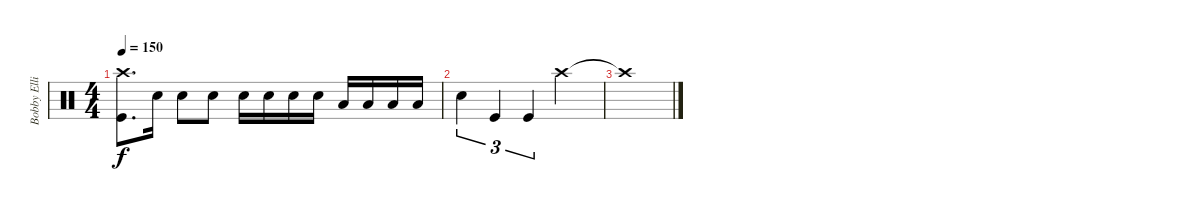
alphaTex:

\track ("Bobby Elliott" "Bobby Elli") {instrument percussion}
\staff {score}
\articulation defaults
\ts (4 4)
\tempo 150
\clef neutral
\ks c
("Crash high (hit)" "Kick (hit)").8{d dy f} "Snare (hit) 2".16 "Snare (hit) 2".8 "Snare (hit) 2".8 "Snare (hit) 2".16 "Snare (hit) 2".16 "Snare (hit) 2".16 "Snare (hit) 2".16 "Low Floor Tom (hit)".16 "Low Floor Tom (hit)".16 "Low Floor Tom (hit)".16 "Low Floor Tom (hit)".16 |
"Snare (hit) 2".4{tu (3 2)} "Kick (hit)".4{tu (3 2)} "Kick (hit)".4{tu (3 2)} "Crash high (hit)".2 |
"Crash high (hit)"{t}.1
